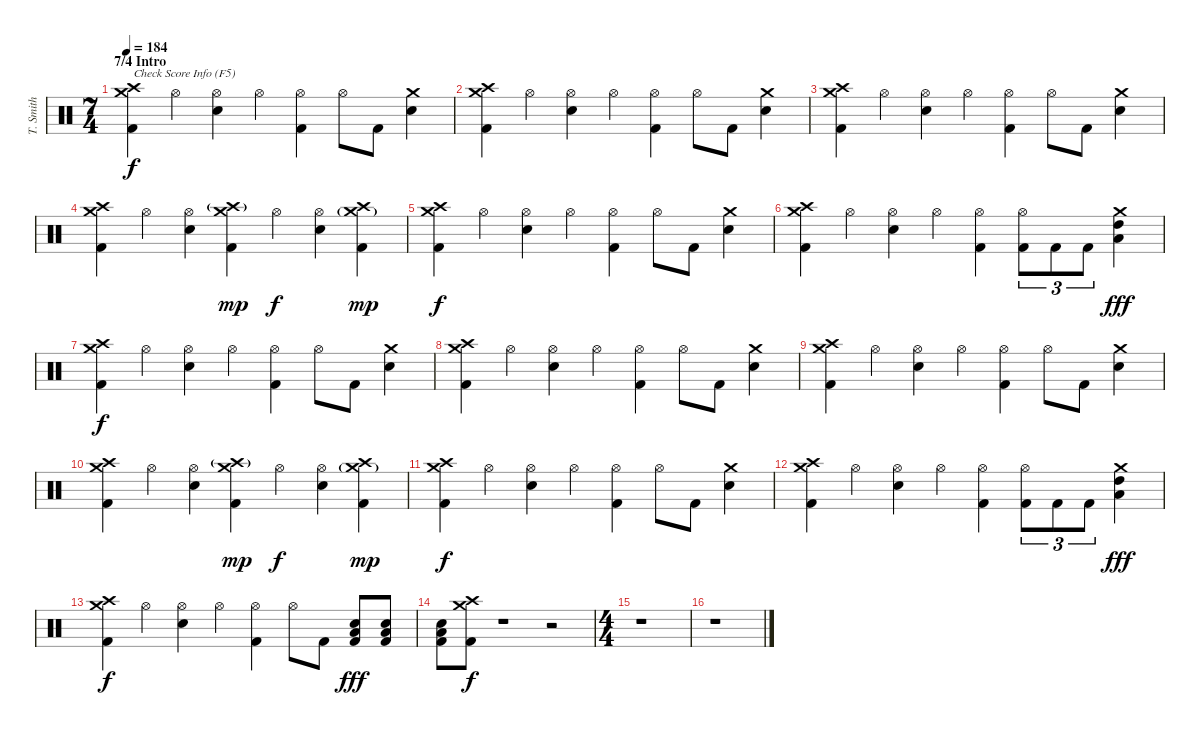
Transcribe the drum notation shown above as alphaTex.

\track ("T. Smith" "T. Smith") {instrument percussion}
\staff {score}
\articulation defaults
\ts (7 4)
\section ("" "7/4 Intro")
\tempo 184
\clef neutral
\ks c
("Crash medium (hit)" "Crash high (hit)" "Kick (hit) 2").4{txt "Check Score Info (F5)" dy f} "Hi-Hat (open)".4 ("Hi-Hat (open)" "Electric Snare (hit)").4 "Hi-Hat (open)".4 ("Hi-Hat (open)" "Kick (hit) 2").4 "Hi-Hat (open)".8 "Kick (hit) 2".8 ("Crash medium (hit)" "Electric Snare (hit)").4 |
("Crash medium (hit)" "Crash high (hit)" "Kick (hit) 2").4 "Hi-Hat (open)".4 ("Hi-Hat (open)" "Electric Snare (hit)").4 "Hi-Hat (open)".4 ("Hi-Hat (open)" "Kick (hit) 2").4 "Hi-Hat (open)".8 "Kick (hit) 2".8 ("Crash medium (hit)" "Electric Snare (hit)").4 |
("Crash medium (hit)" "Crash high (hit)" "Kick (hit) 2").4 "Hi-Hat (open)".4 ("Hi-Hat (open)" "Electric Snare (hit)").4 "Hi-Hat (open)".4 ("Hi-Hat (open)" "Kick (hit) 2").4 "Hi-Hat (open)".8 "Kick (hit) 2".8 ("Crash medium (hit)" "Electric Snare (hit)").4 |
("Crash medium (hit)" "Crash high (hit)" "Kick (hit) 2").4 "Hi-Hat (open)".4 ("Hi-Hat (open)" "Electric Snare (hit)").4 ("Crash medium (hit)" "Crash high (hit)"{g} "Kick (hit) 2").4{dy mp} "Hi-Hat (open)".4{dy f} ("Hi-Hat (open)" "Electric Snare (hit)").4 ("Crash medium (hit)"{g} "Crash high (hit)" "Kick (hit) 2").4{dy mp} |
("Crash medium (hit)" "Crash high (hit)" "Kick (hit) 2").4{dy f} "Hi-Hat (open)".4 ("Hi-Hat (open)" "Electric Snare (hit)").4 "Hi-Hat (open)".4 ("Hi-Hat (open)" "Kick (hit) 2").4 "Hi-Hat (open)".8 "Kick (hit) 2".8 ("Crash medium (hit)" "Electric Snare (hit)").4 |
("Crash medium (hit)" "Crash high (hit)" "Kick (hit) 2").4 "Hi-Hat (open)".4 ("Hi-Hat (open)" "Electric Snare (hit)").4 "Hi-Hat (open)".4 ("Hi-Hat (open)" "Kick (hit) 2").4 ("Hi-Hat (open)" "Kick (hit) 2").8{tu (3 2)} "Kick (hit) 2".8{tu (3 2)} "Kick (hit) 2".8{tu (3 2)} ("Crash medium (hit)" "High Tom (hit)" "Low Tom (hit)").4{dy fff} |
("Crash medium (hit)" "Crash high (hit)" "Kick (hit) 2").4{dy f} "Hi-Hat (open)".4 ("Hi-Hat (open)" "Electric Snare (hit)").4 "Hi-Hat (open)".4 ("Hi-Hat (open)" "Kick (hit) 2").4 "Hi-Hat (open)".8 "Kick (hit) 2".8 ("Crash medium (hit)" "Electric Snare (hit)").4 |
("Crash medium (hit)" "Crash high (hit)" "Kick (hit) 2").4 "Hi-Hat (open)".4 ("Hi-Hat (open)" "Electric Snare (hit)").4 "Hi-Hat (open)".4 ("Hi-Hat (open)" "Kick (hit) 2").4 "Hi-Hat (open)".8 "Kick (hit) 2".8 ("Crash medium (hit)" "Electric Snare (hit)").4 |
("Crash medium (hit)" "Crash high (hit)" "Kick (hit) 2").4 "Hi-Hat (open)".4 ("Hi-Hat (open)" "Electric Snare (hit)").4 "Hi-Hat (open)".4 ("Hi-Hat (open)" "Kick (hit) 2").4 "Hi-Hat (open)".8 "Kick (hit) 2".8 ("Crash medium (hit)" "Electric Snare (hit)").4 |
("Crash medium (hit)" "Crash high (hit)" "Kick (hit) 2").4 "Hi-Hat (open)".4 ("Hi-Hat (open)" "Electric Snare (hit)").4 ("Crash medium (hit)" "Crash high (hit)"{g} "Kick (hit) 2").4{dy mp} "Hi-Hat (open)".4{dy f} ("Hi-Hat (open)" "Electric Snare (hit)").4 ("Crash medium (hit)"{g} "Crash high (hit)" "Kick (hit) 2").4{dy mp} |
("Crash medium (hit)" "Crash high (hit)" "Kick (hit) 2").4{dy f} "Hi-Hat (open)".4 ("Hi-Hat (open)" "Electric Snare (hit)").4 "Hi-Hat (open)".4 ("Hi-Hat (open)" "Kick (hit) 2").4 "Hi-Hat (open)".8 "Kick (hit) 2".8 ("Crash medium (hit)" "Electric Snare (hit)").4 |
("Crash medium (hit)" "Crash high (hit)" "Kick (hit) 2").4 "Hi-Hat (open)".4 ("Hi-Hat (open)" "Electric Snare (hit)").4 "Hi-Hat (open)".4 ("Hi-Hat (open)" "Kick (hit) 2").4 ("Hi-Hat (open)" "Kick (hit) 2").8{tu (3 2)} "Kick (hit) 2".8{tu (3 2)} "Kick (hit) 2".8{tu (3 2)} ("Crash medium (hit)" "High Tom (hit)" "Low Tom (hit)").4{dy fff} |
("Crash medium (hit)" "Crash high (hit)" "Kick (hit) 2").4{dy f} "Hi-Hat (open)".4 ("Hi-Hat (open)" "Electric Snare (hit)").4 "Hi-Hat (open)".4 ("Hi-Hat (open)" "Kick (hit) 2").4 "Hi-Hat (open)".8 "Kick (hit) 2".8 ("Low Tom (hit)" "Electric Snare (hit)" "Kick (hit) 2").8{dy fff} ("Low Tom (hit)" "Electric Snare (hit)" "Kick (hit) 2").8 |
("Low Tom (hit)" "Electric Snare (hit)" "Kick (hit) 2").8 ("Crash medium (hit)" "Crash high (hit)" "Kick (hit) 2").8{dy f} r.1 r.2 |
\ts (4 4)
r.1 |
r.1
